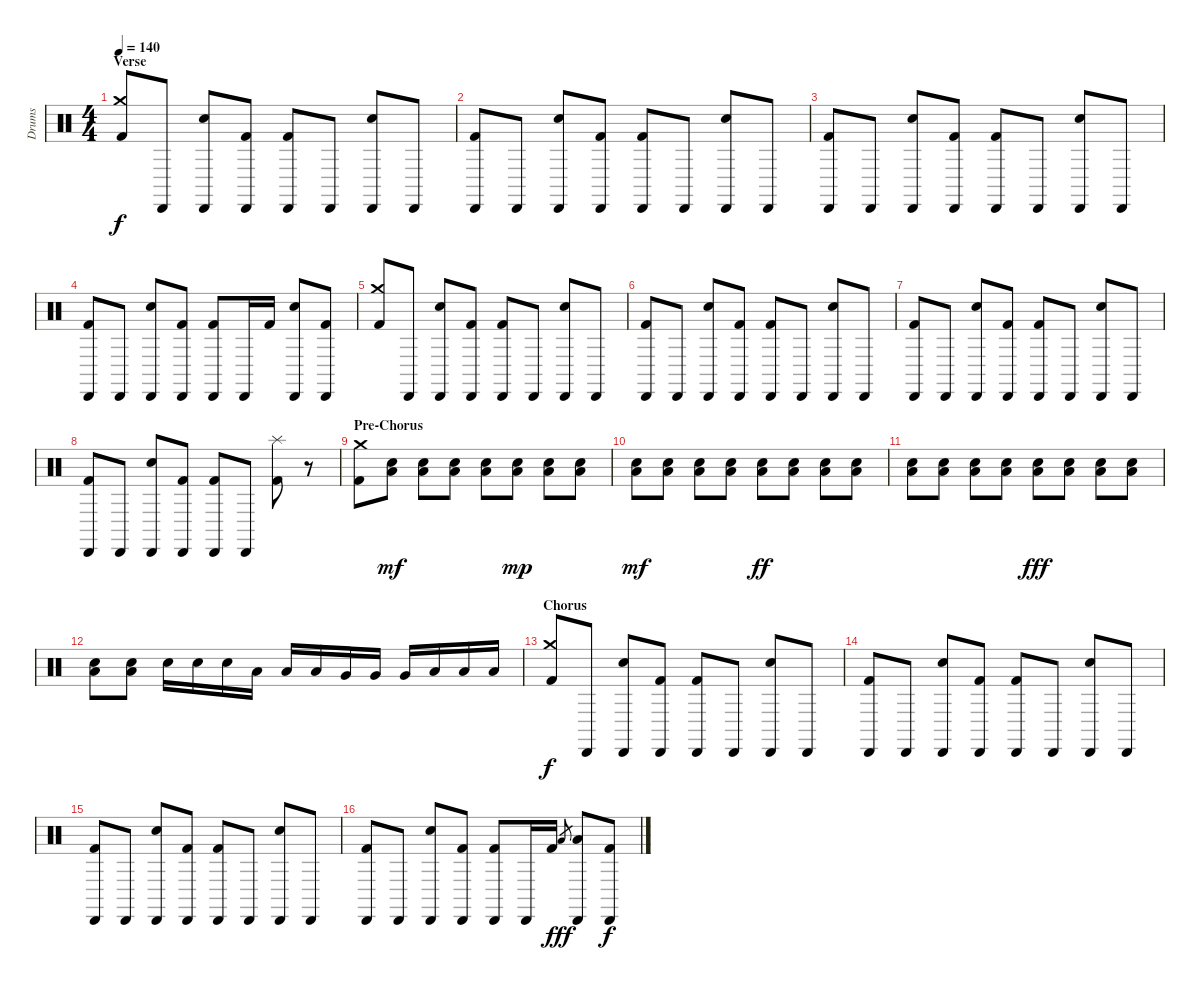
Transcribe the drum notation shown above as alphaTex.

\track ("Drums" "Drums") {instrument percussion}
\staff {score}
\articulation defaults
\ts (4 4)
\section ("" "Verse")
\tempo 140
\clef neutral
\ks c
("Crash medium (hit)" "Kick (hit) 2").8{dy f} "Cabasa (hit)".8 ("Cabasa (hit)" "Electric Snare (hit)").8 ("Cabasa (hit)" "Kick (hit) 2").8 ("Cabasa (hit)" "Kick (hit) 2").8 "Cabasa (hit)".8 ("Cabasa (hit)" "Electric Snare (hit)").8 "Cabasa (hit)".8 |
("Cabasa (hit)" "Kick (hit) 2").8 "Cabasa (hit)".8 ("Cabasa (hit)" "Electric Snare (hit)").8 ("Cabasa (hit)" "Kick (hit) 2").8 ("Cabasa (hit)" "Kick (hit) 2").8 "Cabasa (hit)".8 ("Cabasa (hit)" "Electric Snare (hit)").8 "Cabasa (hit)".8 |
("Cabasa (hit)" "Kick (hit) 2").8 "Cabasa (hit)".8 ("Cabasa (hit)" "Electric Snare (hit)").8 ("Cabasa (hit)" "Kick (hit) 2").8 ("Cabasa (hit)" "Kick (hit) 2").8 "Cabasa (hit)".8 ("Cabasa (hit)" "Electric Snare (hit)").8 "Cabasa (hit)".8 |
("Cabasa (hit)" "Kick (hit) 2").8 "Cabasa (hit)".8 ("Cabasa (hit)" "Electric Snare (hit)").8 ("Cabasa (hit)" "Kick (hit) 2").8 ("Cabasa (hit)" "Kick (hit) 2").8 "Cabasa (hit)".16 "Kick (hit) 2".16 ("Cabasa (hit)" "Electric Snare (hit)").8 ("Cabasa (hit)" "Kick (hit) 2").8 |
("Crash medium (hit)" "Kick (hit) 2").8 "Cabasa (hit)".8 ("Cabasa (hit)" "Electric Snare (hit)").8 ("Cabasa (hit)" "Kick (hit) 2").8 ("Cabasa (hit)" "Kick (hit) 2").8 "Cabasa (hit)".8 ("Cabasa (hit)" "Electric Snare (hit)").8 "Cabasa (hit)".8 |
("Cabasa (hit)" "Kick (hit) 2").8 "Cabasa (hit)".8 ("Cabasa (hit)" "Electric Snare (hit)").8 ("Cabasa (hit)" "Kick (hit) 2").8 ("Cabasa (hit)" "Kick (hit) 2").8 "Cabasa (hit)".8 ("Cabasa (hit)" "Electric Snare (hit)").8 "Cabasa (hit)".8 |
("Cabasa (hit)" "Kick (hit) 2").8 "Cabasa (hit)".8 ("Cabasa (hit)" "Electric Snare (hit)").8 ("Cabasa (hit)" "Kick (hit) 2").8 ("Cabasa (hit)" "Kick (hit) 2").8 "Cabasa (hit)".8 ("Cabasa (hit)" "Electric Snare (hit)").8 "Cabasa (hit)".8 |
("Cabasa (hit)" "Kick (hit) 2").8 "Cabasa (hit)".8 ("Cabasa (hit)" "Electric Snare (hit)").8 ("Cabasa (hit)" "Kick (hit) 2").8 ("Cabasa (hit)" "Kick (hit) 2").8 "Cabasa (hit)".8 ("Splash (hit)" "Kick (hit) 2").8 r.8 |
\section ("" "Pre-Chorus")
("Crash medium (hit)" "Kick (hit) 2").8 ("Electric Snare (hit)" "Low Floor Tom (hit)").8{dy mf} ("Electric Snare (hit)" "Low Floor Tom (hit)").8 ("Electric Snare (hit)" "Low Floor Tom (hit)").8 ("Electric Snare (hit)" "Low Floor Tom (hit)").8 ("Electric Snare (hit)" "Low Floor Tom (hit)").8{dy mp} ("Electric Snare (hit)" "Low Floor Tom (hit)").8 ("Electric Snare (hit)" "Low Floor Tom (hit)").8 |
("Electric Snare (hit)" "Low Floor Tom (hit)").8{dy mf} ("Electric Snare (hit)" "Low Floor Tom (hit)").8 ("Electric Snare (hit)" "Low Floor Tom (hit)").8 ("Electric Snare (hit)" "Low Floor Tom (hit)").8 ("Electric Snare (hit)" "Low Floor Tom (hit)").8{dy ff} ("Electric Snare (hit)" "Low Floor Tom (hit)").8 ("Electric Snare (hit)" "Low Floor Tom (hit)").8 ("Electric Snare (hit)" "Low Floor Tom (hit)").8 |
("Electric Snare (hit)" "Low Floor Tom (hit)").8 ("Electric Snare (hit)" "Low Floor Tom (hit)").8 ("Electric Snare (hit)" "Low Floor Tom (hit)").8 ("Electric Snare (hit)" "Low Floor Tom (hit)").8 ("Electric Snare (hit)" "Low Floor Tom (hit)").8{dy fff} ("Electric Snare (hit)" "Low Floor Tom (hit)").8 ("Electric Snare (hit)" "Low Floor Tom (hit)").8 ("Electric Snare (hit)" "Low Floor Tom (hit)").8 |
("Electric Snare (hit)" "Low Floor Tom (hit)").8 ("Electric Snare (hit)" "Low Floor Tom (hit)").8 "Electric Snare (hit)".16 "Electric Snare (hit)".16 "Electric Snare (hit)".16 "Low Tom (hit)".16 "Low Tom (hit)".16 "Low Tom (hit)".16 "Very Low Tom (hit)".16 "Very Low Tom (hit)".16 "Very Low Tom (hit)".16 "Low Floor Tom (hit)".16 "Low Floor Tom (hit)".16 "Low Floor Tom (hit)".16 |
\section ("" "Chorus")
("Crash medium (hit)" "Kick (hit) 2").8{dy f} "Cabasa (hit)".8 ("Cabasa (hit)" "Electric Snare (hit)").8 ("Cabasa (hit)" "Kick (hit) 2").8 ("Cabasa (hit)" "Kick (hit) 2").8 "Cabasa (hit)".8 ("Cabasa (hit)" "Electric Snare (hit)").8 "Cabasa (hit)".8 |
("Cabasa (hit)" "Kick (hit) 2").8 "Cabasa (hit)".8 ("Cabasa (hit)" "Electric Snare (hit)").8 ("Cabasa (hit)" "Kick (hit) 2").8 ("Cabasa (hit)" "Kick (hit) 2").8 "Cabasa (hit)".8 ("Cabasa (hit)" "Electric Snare (hit)").8 "Cabasa (hit)".8 |
("Cabasa (hit)" "Kick (hit) 2").8 "Cabasa (hit)".8 ("Cabasa (hit)" "Electric Snare (hit)").8 ("Cabasa (hit)" "Kick (hit) 2").8 ("Cabasa (hit)" "Kick (hit) 2").8 "Cabasa (hit)".8 ("Cabasa (hit)" "Electric Snare (hit)").8 "Cabasa (hit)".8 |
("Cabasa (hit)" "Kick (hit) 2").8 "Cabasa (hit)".8 ("Cabasa (hit)" "Electric Snare (hit)").8 ("Cabasa (hit)" "Kick (hit) 2").8 ("Cabasa (hit)" "Kick (hit) 2").8 "Cabasa (hit)".16 "Kick (hit) 2".16 "Low Floor Tom (hit)".8{gr dy fff} ("Cabasa (hit)" "Low Floor Tom (hit)").8 ("Cabasa (hit)" "Kick (hit) 2").8{dy f}
